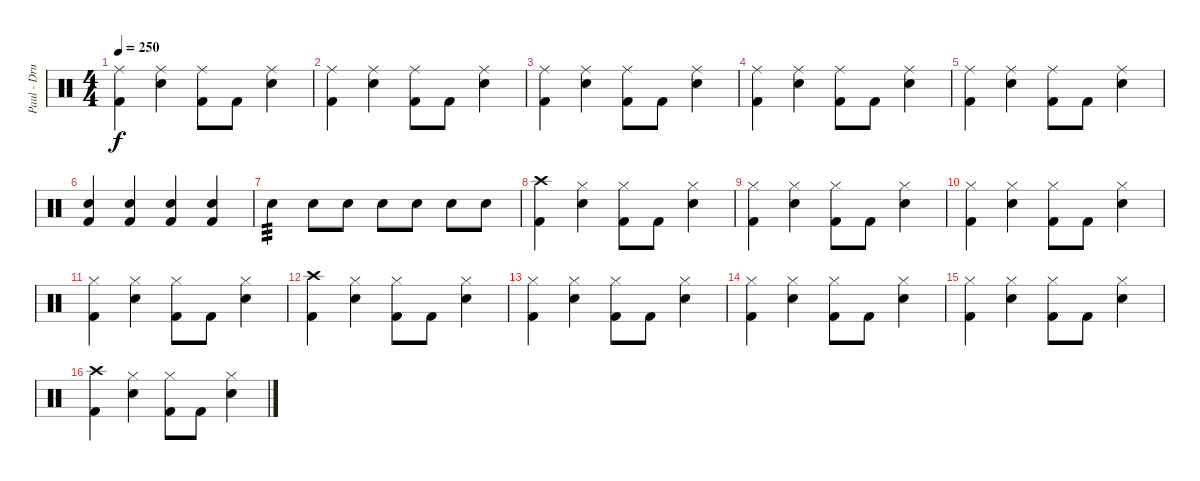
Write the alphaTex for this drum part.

\track ("Paul - Drums" "Paul - Dru") {instrument percussion}
\staff {score}
\articulation defaults
\ts (4 4)
\tempo 250
\clef neutral
\ks c
("Ride (middle)" "Kick (hit) 2").4{dy f} ("Ride (middle)" "Electric Snare (hit)").4 ("Ride (middle)" "Kick (hit) 2").8 "Kick (hit) 2".8 ("Ride (middle)" "Electric Snare (hit)").4 |
("Ride (middle)" "Kick (hit) 2").4 ("Ride (middle)" "Electric Snare (hit)").4 ("Ride (middle)" "Kick (hit) 2").8 "Kick (hit) 2".8 ("Ride (middle)" "Electric Snare (hit)").4 |
("Ride (middle)" "Kick (hit) 2").4 ("Ride (middle)" "Electric Snare (hit)").4 ("Ride (middle)" "Kick (hit) 2").8 "Kick (hit) 2".8 ("Ride (middle)" "Electric Snare (hit)").4 |
("Ride (middle)" "Kick (hit) 2").4 ("Ride (middle)" "Electric Snare (hit)").4 ("Ride (middle)" "Kick (hit) 2").8 "Kick (hit) 2".8 ("Ride (middle)" "Electric Snare (hit)").4 |
("Ride (middle)" "Kick (hit) 2").4 ("Ride (middle)" "Electric Snare (hit)").4 ("Ride (middle)" "Kick (hit) 2").8 "Kick (hit) 2".8 ("Ride (middle)" "Electric Snare (hit)").4 |
("Electric Snare (hit)" "Kick (hit) 2").4 ("Electric Snare (hit)" "Kick (hit) 2").4 ("Electric Snare (hit)" "Kick (hit) 2").4 ("Electric Snare (hit)" "Kick (hit) 2").4 |
"Electric Snare (hit)".4{tp 3} "Electric Snare (hit)".8 "Electric Snare (hit)".8 "Electric Snare (hit)".8 "Electric Snare (hit)".8 "Electric Snare (hit)".8 "Electric Snare (hit)".8 |
("Crash high (hit)" "Kick (hit) 2").4 ("Hi-Hat (closed)" "Electric Snare (hit)").4 ("Hi-Hat (closed)" "Kick (hit) 2").8 "Kick (hit) 2".8 ("Hi-Hat (closed)" "Electric Snare (hit)").4 |
("Hi-Hat (closed)" "Kick (hit) 2").4 ("Hi-Hat (closed)" "Electric Snare (hit)").4 ("Hi-Hat (closed)" "Kick (hit) 2").8 "Kick (hit) 2".8 ("Hi-Hat (closed)" "Electric Snare (hit)").4 |
("Hi-Hat (closed)" "Kick (hit) 2").4 ("Hi-Hat (closed)" "Electric Snare (hit)").4 ("Hi-Hat (closed)" "Kick (hit) 2").8 "Kick (hit) 2".8 ("Hi-Hat (closed)" "Electric Snare (hit)").4 |
("Hi-Hat (closed)" "Kick (hit) 2").4 ("Hi-Hat (closed)" "Electric Snare (hit)").4 ("Hi-Hat (closed)" "Kick (hit) 2").8 "Kick (hit) 2".8 ("Hi-Hat (closed)" "Electric Snare (hit)").4 |
("Crash high (hit)" "Kick (hit) 2").4 ("Hi-Hat (closed)" "Electric Snare (hit)").4 ("Hi-Hat (closed)" "Kick (hit) 2").8 "Kick (hit) 2".8 ("Hi-Hat (closed)" "Electric Snare (hit)").4 |
("Hi-Hat (closed)" "Kick (hit) 2").4 ("Hi-Hat (closed)" "Electric Snare (hit)").4 ("Hi-Hat (closed)" "Kick (hit) 2").8 "Kick (hit) 2".8 ("Hi-Hat (closed)" "Electric Snare (hit)").4 |
("Hi-Hat (closed)" "Kick (hit) 2").4 ("Hi-Hat (closed)" "Electric Snare (hit)").4 ("Hi-Hat (closed)" "Kick (hit) 2").8 "Kick (hit) 2".8 ("Hi-Hat (closed)" "Electric Snare (hit)").4 |
("Hi-Hat (closed)" "Kick (hit) 2").4 ("Hi-Hat (closed)" "Electric Snare (hit)").4 ("Hi-Hat (closed)" "Kick (hit) 2").8 "Kick (hit) 2".8 ("Hi-Hat (closed)" "Electric Snare (hit)").4 |
("Crash high (hit)" "Kick (hit) 2").4 ("Hi-Hat (closed)" "Electric Snare (hit)").4 ("Hi-Hat (closed)" "Kick (hit) 2").8 "Kick (hit) 2".8 ("Hi-Hat (closed)" "Electric Snare (hit)").4
